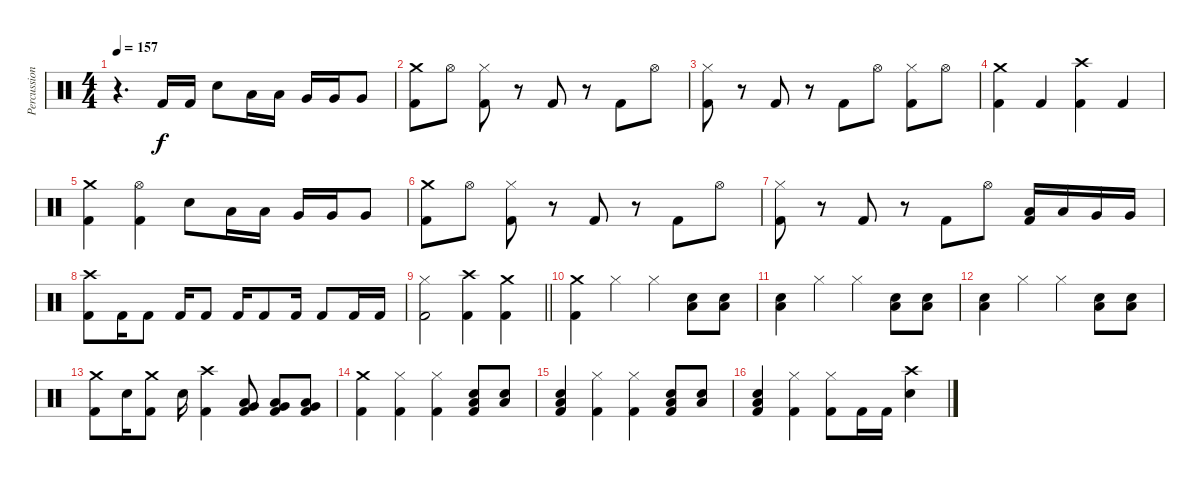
\track ("Percussion" "Percussion") {instrument percussion}
\staff {score}
\articulation defaults
\ts (4 4)
\tempo 157
\clef neutral
\ks c
r.4{d dy f} "Kick (hit) 2".16 "Kick (hit) 2".16 "Electric Snare (hit)".8 "Low Tom (hit)".16 "Low Tom (hit)".16 "Very Low Tom (hit)".16 "Very Low Tom (hit)".16 "Very Low Tom (hit)".8 |
("Crash medium (hit)" "Kick (hit) 2").8 "Hi-Hat (open)".8 ("Hi-Hat (closed)" "Kick (hit) 2").8 r.8 "Kick (hit) 2".8 r.8 "Kick (hit) 2".8 "Hi-Hat (open)".8 |
("Hi-Hat (closed)" "Kick (hit) 2").8 r.8 "Kick (hit) 2".8 r.8 "Kick (hit) 2".8 "Hi-Hat (open)".8 ("Hi-Hat (closed)" "Kick (hit) 2").8 "Hi-Hat (open)".8 |
("Crash medium (hit)" "Kick (hit) 2").4 "Kick (hit) 2".4 ("Crash high (hit)" "Kick (hit) 2").4 "Kick (hit) 2".4 |
("Crash medium (hit)" "Kick (hit) 2").4 ("Hi-Hat (open)" "Kick (hit) 2").4 "Electric Snare (hit)".8 "Low Tom (hit)".16 "Low Tom (hit)".16 "Very Low Tom (hit)".16 "Very Low Tom (hit)".16 "Very Low Tom (hit)".8 |
("Crash medium (hit)" "Kick (hit) 2").8 "Hi-Hat (open)".8 ("Hi-Hat (closed)" "Kick (hit) 2").8 r.8 "Kick (hit) 2".8 r.8 "Kick (hit) 2".8 "Hi-Hat (open)".8 |
("Hi-Hat (closed)" "Kick (hit) 2").8 r.8 "Kick (hit) 2".8 r.8 "Kick (hit) 2".8 "Hi-Hat (open)".8 ("Low Tom (hit)" "Kick (hit) 2").16 "Low Tom (hit)".16 "Very Low Tom (hit)".16 "Very Low Tom (hit)".16 |
("Crash high (hit)" "Kick (hit) 2").8 "Kick (hit) 2".16 "Kick (hit) 2".8 "Kick (hit) 2".16 "Kick (hit) 2".8 "Kick (hit) 2".16 "Kick (hit) 2".8 "Kick (hit) 2".16 "Kick (hit) 2".8 "Kick (hit) 2".16 "Kick (hit) 2".16 |
\barLineRight lightlight
("Hi-Hat (closed)" "Kick (hit) 2").2 ("Crash high (hit)" "Kick (hit) 2").4 ("Crash medium (hit)" "Kick (hit) 2").4 |
("Crash medium (hit)" "Kick (hit) 2").4 "Hi-Hat (closed)".4 "Hi-Hat (closed)".4 ("Low Floor Tom (hit)" "Electric Snare (hit)").8 ("Low Floor Tom (hit)" "Electric Snare (hit)").8 |
("Low Floor Tom (hit)" "Electric Snare (hit)").4 "Hi-Hat (closed)".4 "Hi-Hat (closed)".4 ("Low Floor Tom (hit)" "Electric Snare (hit)").8 ("Low Floor Tom (hit)" "Electric Snare (hit)").8 |
("Low Floor Tom (hit)" "Electric Snare (hit)").4 "Hi-Hat (closed)".4 "Hi-Hat (closed)".4 ("Low Floor Tom (hit)" "Electric Snare (hit)").8 ("Low Floor Tom (hit)" "Electric Snare (hit)").8 |
("Crash medium (hit)" "Kick (hit) 2").8 "Electric Snare (hit)".16 ("Crash medium (hit)" "Kick (hit) 2").8 "Electric Snare (hit)".16 ("Crash high (hit)" "Kick (hit) 2").4 ("Very Low Tom (hit)" "Low Floor Tom (hit)" "Kick (hit) 2").8 ("Very Low Tom (hit)" "Low Floor Tom (hit)" "Kick (hit) 2").8 ("Very Low Tom (hit)" "Low Floor Tom (hit)" "Kick (hit) 2").8 |
("Crash medium (hit)" "Kick (hit) 2").4 ("Hi-Hat (closed)" "Kick (hit) 2").4 ("Hi-Hat (closed)" "Kick (hit) 2").4 ("Low Floor Tom (hit)" "Electric Snare (hit)" "Kick (hit) 2").8 ("Low Floor Tom (hit)" "Electric Snare (hit)").8 |
("Low Floor Tom (hit)" "Electric Snare (hit)" "Kick (hit) 2").4 ("Hi-Hat (closed)" "Kick (hit) 2").4 ("Hi-Hat (closed)" "Kick (hit) 2").4 ("Low Floor Tom (hit)" "Electric Snare (hit)" "Kick (hit) 2").8 ("Low Floor Tom (hit)" "Electric Snare (hit)").8 |
("Low Floor Tom (hit)" "Electric Snare (hit)" "Kick (hit) 2").4 ("Hi-Hat (closed)" "Kick (hit) 2").4 ("Hi-Hat (closed)" "Kick (hit) 2").8 "Kick (hit) 2".16 "Kick (hit) 2".16 ("Crash high (hit)" "Electric Snare (hit)").4
